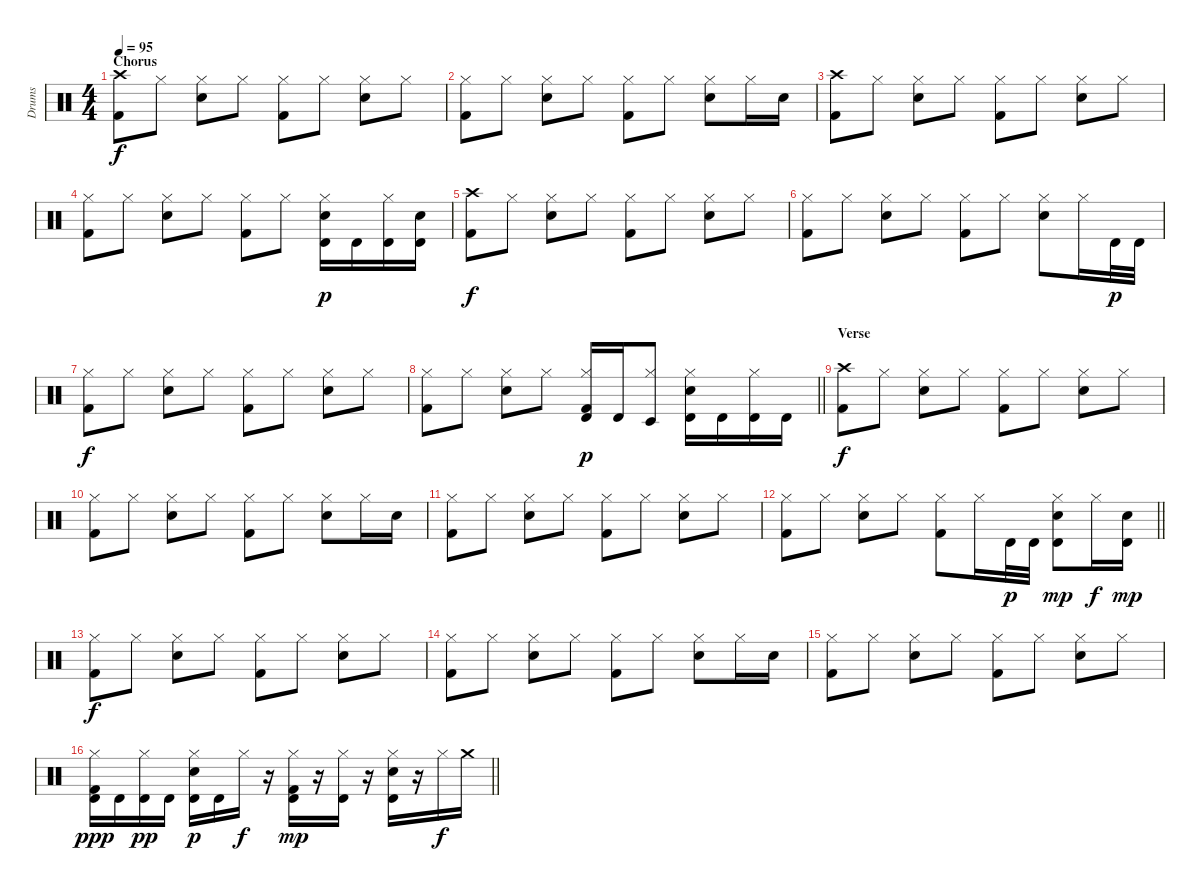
\track ("Drums" "Drums") {instrument percussion}
\staff {score}
\articulation defaults
\ts (4 4)
\section ("" "Chorus")
\tempo 95
\clef neutral
\ks c
("Crash high (hit)" "Kick (hit) 2").8{dy f} "Hi-Hat (closed)".8 ("Hi-Hat (closed)" "Snare (hit) 2").8 "Hi-Hat (closed)".8 ("Hi-Hat (closed)" "Kick (hit) 2").8 "Hi-Hat (closed)".8 ("Hi-Hat (closed)" "Snare (hit) 2").8 "Hi-Hat (closed)".8 |
("Hi-Hat (closed)" "Kick (hit) 2").8 "Hi-Hat (closed)".8 ("Hi-Hat (closed)" "Snare (hit) 2").8 "Hi-Hat (closed)".8 ("Hi-Hat (closed)" "Kick (hit) 2").8 "Hi-Hat (closed)".8 ("Hi-Hat (closed)" "Snare (hit) 2").8 "Hi-Hat (closed)".16 "Snare (hit) 2".16 |
("Crash high (hit)" "Kick (hit) 2").8 "Hi-Hat (closed)".8 ("Hi-Hat (closed)" "Snare (hit) 2").8 "Hi-Hat (closed)".8 ("Hi-Hat (closed)" "Kick (hit) 2").8 "Hi-Hat (closed)".8 ("Hi-Hat (closed)" "Snare (hit) 2").8 "Hi-Hat (closed)".8 |
("Hi-Hat (closed)" "Kick (hit) 2").8 "Hi-Hat (closed)".8 ("Hi-Hat (closed)" "Snare (hit) 2").8 "Hi-Hat (closed)".8 ("Hi-Hat (closed)" "Kick (hit) 2").8 "Hi-Hat (closed)".8 ("Hi-Hat (closed)" "Snare (hit) 2" "Timbale high (hit)").16{dy p} "Timbale high (hit)".16 ("Hi-Hat (closed)" "Timbale high (hit)").16 ("Snare (hit) 2" "Timbale high (hit)").16 |
("Crash high (hit)" "Kick (hit) 2").8{dy f} "Hi-Hat (closed)".8 ("Hi-Hat (closed)" "Snare (hit) 2").8 "Hi-Hat (closed)".8 ("Hi-Hat (closed)" "Kick (hit) 2").8 "Hi-Hat (closed)".8 ("Hi-Hat (closed)" "Snare (hit) 2").8 "Hi-Hat (closed)".8 |
("Hi-Hat (closed)" "Kick (hit) 2").8 "Hi-Hat (closed)".8 ("Hi-Hat (closed)" "Snare (hit) 2").8 "Hi-Hat (closed)".8 ("Hi-Hat (closed)" "Kick (hit) 2").8 "Hi-Hat (closed)".8 ("Hi-Hat (closed)" "Snare (hit) 2").8 "Hi-Hat (closed)".16 "Timbale high (hit)".32{dy p} "Timbale high (hit)".32 |
("Hi-Hat (closed)" "Kick (hit) 2").8{dy f} "Hi-Hat (closed)".8 ("Hi-Hat (closed)" "Snare (hit) 2").8 "Hi-Hat (closed)".8 ("Hi-Hat (closed)" "Kick (hit) 2").8 "Hi-Hat (closed)".8 ("Hi-Hat (closed)" "Snare (hit) 2").8 "Hi-Hat (closed)".8 |
\barLineRight lightlight
("Hi-Hat (closed)" "Kick (hit) 2").8 "Hi-Hat (closed)".8 ("Hi-Hat (closed)" "Snare (hit) 2").8 "Hi-Hat (closed)".8 ("Hi-Hat (closed)" "Timbale high (hit)" "Kick (hit) 2").16{dy p} "Timbale high (hit)".16 ("Hi-Hat (closed)" "Timbale low (hit)").8 ("Hi-Hat (closed)" "Timbale high (hit)" "Snare (hit) 2").16 "Timbale high (hit)".16 ("Hi-Hat (closed)" "Timbale high (hit)").16 "Timbale high (hit)".16 |
\section ("" "Verse")
("Crash high (hit)" "Kick (hit) 2").8{dy f} "Hi-Hat (closed)".8 ("Hi-Hat (closed)" "Snare (hit) 2").8 "Hi-Hat (closed)".8 ("Hi-Hat (closed)" "Kick (hit) 2").8 "Hi-Hat (closed)".8 ("Hi-Hat (closed)" "Snare (hit) 2").8 "Hi-Hat (closed)".8 |
("Hi-Hat (closed)" "Kick (hit) 2").8 "Hi-Hat (closed)".8 ("Hi-Hat (closed)" "Snare (hit) 2").8 "Hi-Hat (closed)".8 ("Hi-Hat (closed)" "Kick (hit) 2").8 "Hi-Hat (closed)".8 ("Hi-Hat (closed)" "Snare (hit) 2").8 "Hi-Hat (closed)".16 "Snare (hit) 2".16 |
("Hi-Hat (closed)" "Kick (hit) 2").8 "Hi-Hat (closed)".8 ("Hi-Hat (closed)" "Snare (hit) 2").8 "Hi-Hat (closed)".8 ("Hi-Hat (closed)" "Kick (hit) 2").8 "Hi-Hat (closed)".8 ("Hi-Hat (closed)" "Snare (hit) 2").8 "Hi-Hat (closed)".8 |
\barLineRight lightlight
("Hi-Hat (closed)" "Kick (hit) 2").8 "Hi-Hat (closed)".8 ("Hi-Hat (closed)" "Snare (hit) 2").8 "Hi-Hat (closed)".8 ("Hi-Hat (closed)" "Kick (hit) 2").8 "Hi-Hat (closed)".16 "Timbale high (hit)".32{dy p} "Timbale high (hit)".32 ("Hi-Hat (closed)" "Snare (hit) 2" "Timbale high (hit)").8{dy mp} "Hi-Hat (closed)".16{dy f} ("Snare (hit) 2" "Timbale high (hit)").16{dy mp} |
("Hi-Hat (closed)" "Kick (hit) 2").8{dy f} "Hi-Hat (closed)".8 ("Hi-Hat (closed)" "Snare (hit) 2").8 "Hi-Hat (closed)".8 ("Hi-Hat (closed)" "Kick (hit) 2").8 "Hi-Hat (closed)".8 ("Hi-Hat (closed)" "Snare (hit) 2").8 "Hi-Hat (closed)".8 |
("Hi-Hat (closed)" "Kick (hit) 2").8 "Hi-Hat (closed)".8 ("Hi-Hat (closed)" "Snare (hit) 2").8 "Hi-Hat (closed)".8 ("Hi-Hat (closed)" "Kick (hit) 2").8 "Hi-Hat (closed)".8 ("Hi-Hat (closed)" "Snare (hit) 2").8 "Hi-Hat (closed)".16 "Snare (hit) 2".16 |
("Hi-Hat (closed)" "Kick (hit) 2").8 "Hi-Hat (closed)".8 ("Hi-Hat (closed)" "Snare (hit) 2").8 "Hi-Hat (closed)".8 ("Hi-Hat (closed)" "Kick (hit) 2").8 "Hi-Hat (closed)".8 ("Hi-Hat (closed)" "Snare (hit) 2").8 "Hi-Hat (closed)".8 |
\barLineRight lightlight
("Hi-Hat (closed)" "Kick (hit) 2" "Timbale high (hit)").16{dy ppp} "Timbale high (hit)".16 ("Hi-Hat (closed)" "Timbale high (hit)").16{dy pp} "Timbale high (hit)".16 ("Hi-Hat (closed)" "Snare (hit) 2" "Timbale high (hit)").16{dy p} "Timbale high (hit)".16 "Hi-Hat (closed)".16{dy f} r.16 ("Hi-Hat (closed)" "Kick (hit) 2" "Timbale high (hit)").16{dy mp} r.16 ("Hi-Hat (closed)" "Timbale high (hit)").16 r.16 ("Hi-Hat (closed)" "Snare (hit) 2" "Timbale high (hit)").16 r.16 "Hi-Hat (closed)".16{dy f} "Crash medium (hit)".16
